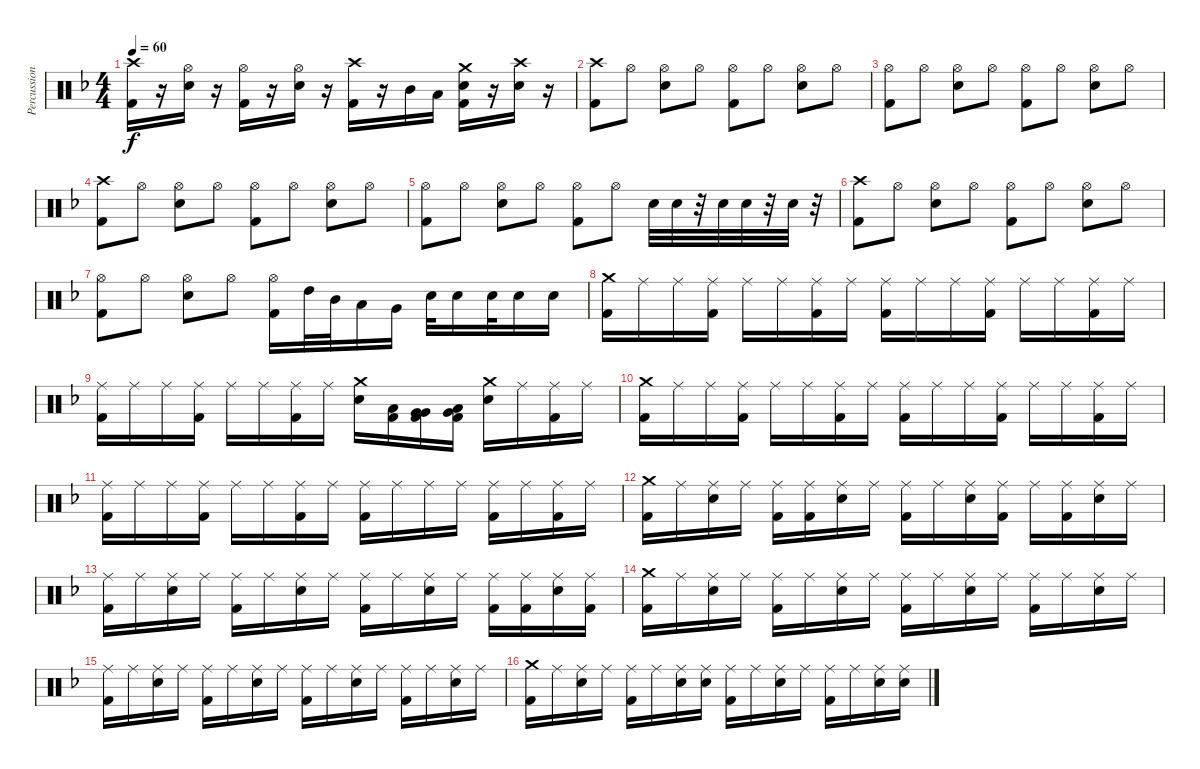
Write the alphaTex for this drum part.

\track ("Percussion" "Percussion") {instrument percussion}
\staff {score}
\articulation defaults
\ts (4 4)
\tempo 60
\clef neutral
\ks dminor
("Crash high (hit)" "Kick (hit) 2").16{dy f} r.16 ("Hi-Hat (open)" "Snare (hit) 2").16 r.16 ("Hi-Hat (open)" "Kick (hit) 2").16 r.16 ("Hi-Hat (open)" "Snare (hit) 2").16 r.16 ("Crash high (hit)" "Kick (hit) 2").16 r.16 "Mid Tom (hit)".16 "Low Tom (hit)".16 ("Crash medium (hit)" "Snare (hit) 2" "Kick (hit) 2").16 r.16 ("Crash high (hit)" "Snare (hit) 2").16 r.16 |
("Crash high (hit)" "Kick (hit) 2").8 "Hi-Hat (open)".8 ("Hi-Hat (open)" "Snare (hit) 2").8 "Hi-Hat (open)".8 ("Hi-Hat (open)" "Kick (hit) 2").8 "Hi-Hat (open)".8 ("Hi-Hat (open)" "Snare (hit) 2").8 "Hi-Hat (open)".8 |
("Hi-Hat (open)" "Kick (hit) 2").8 "Hi-Hat (open)".8 ("Hi-Hat (open)" "Snare (hit) 2").8 "Hi-Hat (open)".8 ("Hi-Hat (open)" "Kick (hit) 2").8 "Hi-Hat (open)".8 ("Hi-Hat (open)" "Snare (hit) 2").8 "Hi-Hat (open)".8 |
("Crash high (hit)" "Kick (hit) 2").8 "Hi-Hat (open)".8 ("Hi-Hat (open)" "Snare (hit) 2").8 "Hi-Hat (open)".8 ("Hi-Hat (open)" "Kick (hit) 2").8 "Hi-Hat (open)".8 ("Hi-Hat (open)" "Snare (hit) 2").8 "Hi-Hat (open)".8 |
("Hi-Hat (open)" "Kick (hit) 2").8 "Hi-Hat (open)".8 ("Hi-Hat (open)" "Snare (hit) 2").8 "Hi-Hat (open)".8 ("Hi-Hat (open)" "Kick (hit) 2").8 "Hi-Hat (open)".8 "Snare (hit) 2".32 "Snare (hit) 2".32 r.32 "Snare (hit) 2".32 "Snare (hit) 2".32 r.32 "Snare (hit) 2".32 r.32 |
("Crash high (hit)" "Kick (hit) 2").8 "Hi-Hat (open)".8 ("Hi-Hat (open)" "Snare (hit) 2").8 "Hi-Hat (open)".8 ("Hi-Hat (open)" "Kick (hit) 2").8 "Hi-Hat (open)".8 ("Hi-Hat (open)" "Snare (hit) 2").8 "Hi-Hat (open)".8 |
("Hi-Hat (open)" "Kick (hit) 2").8 "Hi-Hat (open)".8 ("Hi-Hat (open)" "Snare (hit) 2").8 "Hi-Hat (open)".8 ("Hi-Hat (open)" "Kick (hit) 2").16 "High Tom (hit)".32 "Mid Tom (hit)".32 "Low Tom (hit)".16 "Very Low Tom (hit)".16 "Snare (hit) 2".32 "Snare (hit) 2".16 "Snare (hit) 2".32 "Snare (hit) 2".16 "Snare (hit) 2".16 |
("Crash medium (hit)" "Kick (hit) 2").16 "Ride (middle)".16 "Ride (middle)".16 ("Ride (middle)" "Kick (hit) 2").16 "Ride (middle)".16 "Ride (middle)".16 ("Ride (middle)" "Kick (hit) 2").16 "Ride (middle)".16 ("Ride (middle)" "Kick (hit) 2").16 "Ride (middle)".16 "Ride (middle)".16 ("Ride (middle)" "Kick (hit) 2").16 "Ride (middle)".16 "Ride (middle)".16 ("Ride (middle)" "Kick (hit) 2").16 "Ride (middle)".16 |
("Ride (middle)" "Kick (hit) 2").16 "Ride (middle)".16 "Ride (middle)".16 ("Ride (middle)" "Kick (hit) 2").16 "Ride (middle)".16 "Ride (middle)".16 ("Ride (middle)" "Kick (hit) 2").16 "Ride (middle)".16 ("Crash medium (hit)" "Snare (hit) 2").16 ("Low Tom (hit)" "Kick (hit) 2").16 ("Very Low Tom (hit)" "Very Low Tom (hit)" "Kick (hit) 2").16 ("Low Floor Tom (hit)" "Very Low Tom (hit)" "Kick (hit) 2").16 ("Crash medium (hit)" "Snare (hit) 2").16 "Ride (middle)".16 ("Ride (middle)" "Kick (hit) 2").16 "Ride (middle)".16 |
("Crash medium (hit)" "Kick (hit) 2").16 "Ride (middle)".16 "Ride (middle)".16 ("Ride (middle)" "Kick (hit) 2").16 "Ride (middle)".16 "Ride (middle)".16 ("Ride (middle)" "Kick (hit) 2").16 "Ride (middle)".16 ("Ride (middle)" "Kick (hit) 2").16 "Ride (middle)".16 "Ride (middle)".16 ("Ride (middle)" "Kick (hit) 2").16 "Ride (middle)".16 "Ride (middle)".16 ("Ride (middle)" "Kick (hit) 2").16 "Ride (middle)".16 |
("Ride (middle)" "Kick (hit) 2").16 "Ride (middle)".16 "Ride (middle)".16 ("Ride (middle)" "Kick (hit) 2").16 "Ride (middle)".16 "Ride (middle)".16 ("Ride (middle)" "Kick (hit) 2").16 "Ride (middle)".16 ("Ride (middle)" "Kick (hit) 2").16 "Ride (middle)".16 "Ride (middle)".16 "Ride (middle)".16 ("Ride (middle)" "Kick (hit) 2").16 "Ride (middle)".16 ("Ride (middle)" "Kick (hit) 2").16 "Ride (middle)".16 |
("Crash medium (hit)" "Kick (hit) 2").16 "Ride (middle)".16 ("Ride (middle)" "Snare (hit) 2").16 "Ride (middle)".16 ("Ride (middle)" "Kick (hit) 2").16 ("Ride (middle)" "Kick (hit) 2").16 ("Ride (middle)" "Snare (hit) 2").16 "Ride (middle)".16 ("Ride (middle)" "Kick (hit) 2").16 "Ride (middle)".16 ("Ride (middle)" "Snare (hit) 2").16 ("Ride (middle)" "Kick (hit) 2").16 "Ride (middle)".16 ("Ride (middle)" "Kick (hit) 2").16 ("Ride (middle)" "Snare (hit) 2").16 "Ride (middle)".16 |
("Ride (middle)" "Kick (hit) 2").16 "Ride (middle)".16 ("Ride (middle)" "Snare (hit) 2").16 "Ride (middle)".16 ("Ride (middle)" "Kick (hit) 2").16 "Ride (middle)".16 ("Ride (middle)" "Snare (hit) 2").16 "Ride (middle)".16 ("Ride (middle)" "Kick (hit) 2").16 "Ride (middle)".16 ("Ride (middle)" "Snare (hit) 2").16 "Ride (middle)".16 ("Ride (middle)" "Kick (hit) 2").16 ("Ride (middle)" "Kick (hit) 2").16 ("Ride (middle)" "Snare (hit) 2").16 ("Ride (middle)" "Kick (hit) 2").16 |
("Crash medium (hit)" "Kick (hit) 2").16 "Ride (middle)".16 ("Ride (middle)" "Snare (hit) 2").16 "Ride (middle)".16 ("Ride (middle)" "Kick (hit) 2").16 "Ride (middle)".16 ("Ride (middle)" "Snare (hit) 2").16 "Ride (middle)".16 ("Ride (middle)" "Kick (hit) 2").16 "Ride (middle)".16 ("Ride (middle)" "Snare (hit) 2").16 "Ride (middle)".16 ("Ride (middle)" "Kick (hit) 2").16 "Ride (middle)".16 ("Ride (middle)" "Snare (hit) 2").16 "Ride (middle)".16 |
("Ride (middle)" "Kick (hit) 2").16 "Ride (middle)".16 ("Ride (middle)" "Snare (hit) 2").16 "Ride (middle)".16 ("Ride (middle)" "Kick (hit) 2").16 "Ride (middle)".16 ("Ride (middle)" "Snare (hit) 2").16 "Ride (middle)".16 ("Ride (middle)" "Kick (hit) 2").16 "Ride (middle)".16 ("Ride (middle)" "Snare (hit) 2").16 "Ride (middle)".16 ("Ride (middle)" "Kick (hit) 2").16 "Ride (middle)".16 ("Ride (middle)" "Snare (hit) 2").16 "Ride (middle)".16 |
("Crash medium (hit)" "Kick (hit) 2").16 "Ride (middle)".16 ("Ride (middle)" "Snare (hit) 2").16 "Ride (middle)".16 ("Ride (middle)" "Kick (hit) 2").16 "Ride (middle)".16 ("Ride (middle)" "Snare (hit) 2").16 ("Ride (middle)" "Snare (hit) 2").16 ("Ride (middle)" "Kick (hit) 2").16 "Ride (middle)".16 ("Ride (middle)" "Snare (hit) 2").16 "Ride (middle)".16 ("Ride (middle)" "Kick (hit) 2").16 "Ride (middle)".16 ("Ride (middle)" "Snare (hit) 2").16 ("Ride (middle)" "Snare (hit) 2").16
